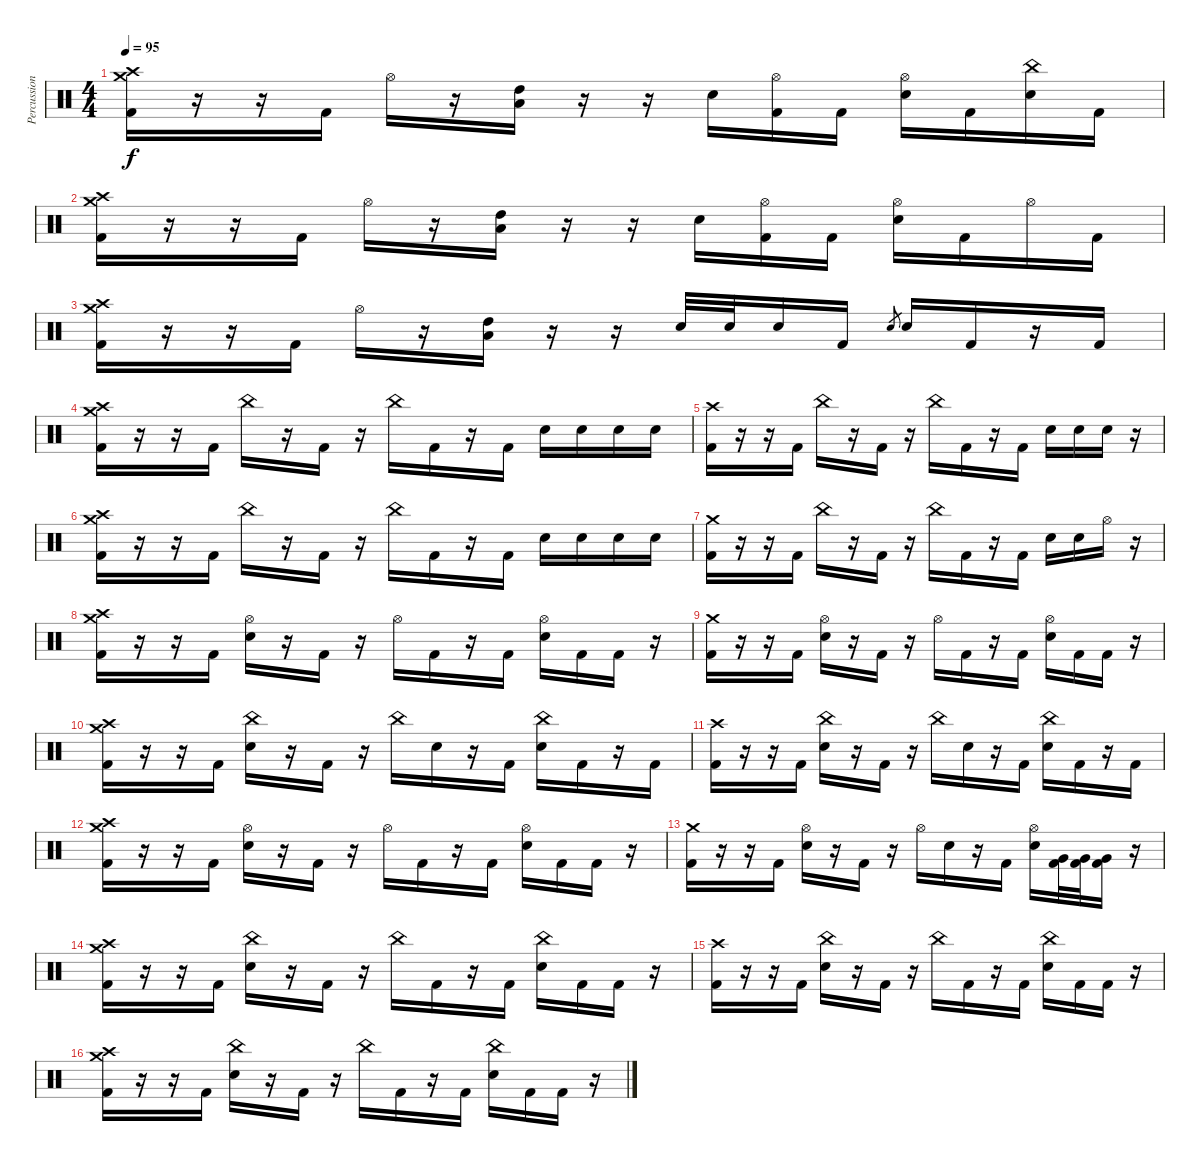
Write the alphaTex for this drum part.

\track ("Percussion" "Percussion") {instrument percussion}
\staff {score}
\articulation defaults
\ts (4 4)
\tempo 95
\clef neutral
\ks c
("Crash medium (hit)" "Crash high (hit)" "Kick (hit) 2").16{dy f} r.16 r.16 "Kick (hit) 2".16 "Hi-Hat (open)".16 r.16 ("High Tom (hit)" "Low Tom (hit)").16 r.16 r.16 "Electric Snare (hit)".16 ("Hi-Hat (open)" "Kick (hit) 2").16 "Kick (hit) 2".16 ("Hi-Hat (open)" "Electric Snare (hit)").16 "Kick (hit) 2".16 ("China (hit)" "Electric Snare (hit)").16 "Kick (hit) 2".16 |
("Crash medium (hit)" "Crash high (hit)" "Kick (hit) 2").16 r.16 r.16 "Kick (hit) 2".16 "Hi-Hat (open)".16 r.16 ("High Tom (hit)" "Low Tom (hit)").16 r.16 r.16 "Electric Snare (hit)".16 ("Hi-Hat (open)" "Kick (hit) 2").16 "Kick (hit) 2".16 ("Hi-Hat (open)" "Electric Snare (hit)").16 "Kick (hit) 2".16 "Hi-Hat (open)".16 "Kick (hit) 2".16 |
("Crash medium (hit)" "Crash high (hit)" "Kick (hit) 2").16 r.16 r.16 "Kick (hit) 2".16 "Hi-Hat (open)".16 r.16 ("High Tom (hit)" "Low Tom (hit)").16 r.16 r.16 "Electric Snare (hit)".32 "Electric Snare (hit)".32 "Electric Snare (hit)".16 "Kick (hit) 2".16 "Electric Snare (hit)".8{gr} "Electric Snare (hit)".16 "Kick (hit) 2".16 r.16 "Kick (hit) 2".16 |
("Crash medium (hit)" "Crash high (hit)" "Kick (hit) 2").16 r.16 r.16 "Kick (hit) 2".16 "China (hit)".16 r.16 "Kick (hit) 2".16 r.16 "China (hit)".16 "Kick (hit) 2".16 r.16 "Kick (hit) 2".16 "Electric Snare (hit)".16 "Electric Snare (hit)".16 "Electric Snare (hit)".16 "Electric Snare (hit)".16 |
("Crash high (hit)" "Kick (hit) 2").16 r.16 r.16 "Kick (hit) 2".16 "China (hit)".16 r.16 "Kick (hit) 2".16 r.16 "China (hit)".16 "Kick (hit) 2".16 r.16 "Kick (hit) 2".16 "Electric Snare (hit)".16 "Electric Snare (hit)".16 "Electric Snare (hit)".16 r.16 |
("Crash medium (hit)" "Crash high (hit)" "Kick (hit) 2").16 r.16 r.16 "Kick (hit) 2".16 "China (hit)".16 r.16 "Kick (hit) 2".16 r.16 "China (hit)".16 "Kick (hit) 2".16 r.16 "Kick (hit) 2".16 "Electric Snare (hit)".16 "Electric Snare (hit)".16 "Electric Snare (hit)".16 "Electric Snare (hit)".16 |
("Crash medium (hit)" "Kick (hit) 2").16 r.16 r.16 "Kick (hit) 2".16 "China (hit)".16 r.16 "Kick (hit) 2".16 r.16 "China (hit)".16 "Kick (hit) 2".16 r.16 "Kick (hit) 2".16 "Electric Snare (hit)".16 "Electric Snare (hit)".16 "Hi-Hat (open)".16 r.16 |
("Crash medium (hit)" "Crash high (hit)" "Kick (hit) 2").16 r.16 r.16 "Kick (hit) 2".16 ("Hi-Hat (open)" "Electric Snare (hit)").16 r.16 "Kick (hit) 2".16 r.16 "Hi-Hat (open)".16 "Kick (hit) 2".16 r.16 "Kick (hit) 2".16 ("Hi-Hat (open)" "Electric Snare (hit)").16 "Kick (hit) 2".16 "Kick (hit) 2".16 r.16 |
("Crash medium (hit)" "Kick (hit) 2").16 r.16 r.16 "Kick (hit) 2".16 ("Hi-Hat (open)" "Electric Snare (hit)").16 r.16 "Kick (hit) 2".16 r.16 "Hi-Hat (open)".16 "Kick (hit) 2".16 r.16 "Kick (hit) 2".16 ("Hi-Hat (open)" "Electric Snare (hit)").16 "Kick (hit) 2".16 "Kick (hit) 2".16 r.16 |
("Crash medium (hit)" "Crash high (hit)" "Kick (hit) 2").16 r.16 r.16 "Kick (hit) 2".16 ("China (hit)" "Electric Snare (hit)").16 r.16 "Kick (hit) 2".16 r.16 "China (hit)".16 "Electric Snare (hit)".16 r.16 "Kick (hit) 2".16 ("China (hit)" "Electric Snare (hit)").16 "Kick (hit) 2".16 r.16 "Kick (hit) 2".16 |
("Crash high (hit)" "Kick (hit) 2").16 r.16 r.16 "Kick (hit) 2".16 ("China (hit)" "Electric Snare (hit)").16 r.16 "Kick (hit) 2".16 r.16 "China (hit)".16 "Electric Snare (hit)".16 r.16 "Kick (hit) 2".16 ("China (hit)" "Electric Snare (hit)").16 "Kick (hit) 2".16 r.16 "Kick (hit) 2".16 |
("Crash medium (hit)" "Crash high (hit)" "Kick (hit) 2").16 r.16 r.16 "Kick (hit) 2".16 ("Hi-Hat (open)" "Electric Snare (hit)").16 r.16 "Kick (hit) 2".16 r.16 "Hi-Hat (open)".16 "Kick (hit) 2".16 r.16 "Kick (hit) 2".16 ("Hi-Hat (open)" "Electric Snare (hit)").16 "Kick (hit) 2".16 "Kick (hit) 2".16 r.16 |
("Crash medium (hit)" "Kick (hit) 2").16 r.16 r.16 "Kick (hit) 2".16 ("Hi-Hat (open)" "Electric Snare (hit)").16 r.16 "Kick (hit) 2".16 r.16 "Hi-Hat (open)".16 "Electric Snare (hit)".16 r.16 "Kick (hit) 2".16 ("Hi-Hat (open)" "Electric Snare (hit)").16 ("Very Low Tom (hit)" "Kick (hit) 2").32 ("Very Low Tom (hit)" "Kick (hit) 2").32 ("Very Low Tom (hit)" "Kick (hit) 2").16 r.16 |
("Crash medium (hit)" "Crash high (hit)" "Kick (hit) 2").16 r.16 r.16 "Kick (hit) 2".16 ("China (hit)" "Electric Snare (hit)").16 r.16 "Kick (hit) 2".16 r.16 "China (hit)".16 "Kick (hit) 2".16 r.16 "Kick (hit) 2".16 ("China (hit)" "Electric Snare (hit)").16 "Kick (hit) 2".16 "Kick (hit) 2".16 r.16 |
("Crash high (hit)" "Kick (hit) 2").16 r.16 r.16 "Kick (hit) 2".16 ("China (hit)" "Electric Snare (hit)").16 r.16 "Kick (hit) 2".16 r.16 "China (hit)".16 "Kick (hit) 2".16 r.16 "Kick (hit) 2".16 ("China (hit)" "Electric Snare (hit)").16 "Kick (hit) 2".16 "Kick (hit) 2".16 r.16 |
("Crash medium (hit)" "Crash high (hit)" "Kick (hit) 2").16 r.16 r.16 "Kick (hit) 2".16 ("China (hit)" "Electric Snare (hit)").16 r.16 "Kick (hit) 2".16 r.16 "China (hit)".16 "Kick (hit) 2".16 r.16 "Kick (hit) 2".16 ("China (hit)" "Electric Snare (hit)").16 "Kick (hit) 2".16 "Kick (hit) 2".16 r.16
